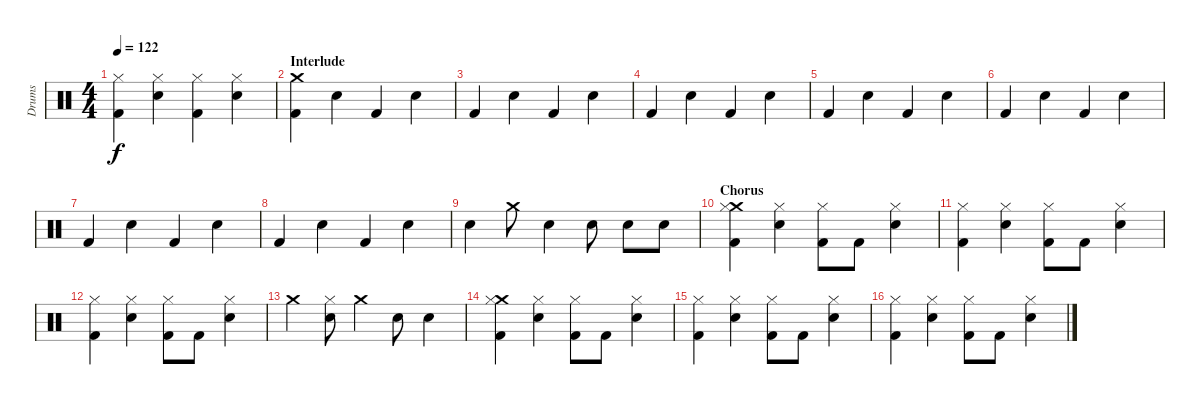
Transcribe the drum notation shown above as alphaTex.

\track ("Drums" "Drums") {instrument percussion}
\staff {score}
\articulation defaults
\ts (4 4)
\tempo 122
\clef neutral
\ks aminor
("Hi-Hat (closed)" "Kick (hit) 2").4{dy f} ("Hi-Hat (closed)" "Snare (hit) 2").4 ("Hi-Hat (closed)" "Kick (hit) 2").4 ("Hi-Hat (closed)" "Snare (hit) 2").4 |
\section ("" "Interlude")
("Crash medium (hit)" "Kick (hit) 2").4 "Snare (hit) 2".4 "Kick (hit) 2".4 "Snare (hit) 2".4 |
"Kick (hit) 2".4 "Snare (hit) 2".4 "Kick (hit) 2".4 "Snare (hit) 2".4 |
"Kick (hit) 2".4 "Snare (hit) 2".4 "Kick (hit) 2".4 "Snare (hit) 2".4 |
"Kick (hit) 2".4 "Snare (hit) 2".4 "Kick (hit) 2".4 "Snare (hit) 2".4 |
"Kick (hit) 2".4 "Snare (hit) 2".4 "Kick (hit) 2".4 "Snare (hit) 2".4 |
"Kick (hit) 2".4 "Snare (hit) 2".4 "Kick (hit) 2".4 "Snare (hit) 2".4 |
"Kick (hit) 2".4 "Snare (hit) 2".4 "Kick (hit) 2".4 "Snare (hit) 2".4 |
"Electric Snare (hit)".4 "Crash medium (hit)".8 "Electric Snare (hit)".4 "Electric Snare (hit)".8 "Electric Snare (hit)".8 "Electric Snare (hit)".8 |
\section ("" "Chorus")
("Crash medium (hit)" "Hi-Hat (closed)" "Kick (hit) 2").4 ("Hi-Hat (closed)" "Snare (hit) 2").4 ("Hi-Hat (closed)" "Kick (hit) 2").8 "Kick (hit) 2".8 ("Hi-Hat (closed)" "Snare (hit) 2").4 |
("Hi-Hat (closed)" "Kick (hit) 2").4 ("Hi-Hat (closed)" "Snare (hit) 2").4 ("Hi-Hat (closed)" "Kick (hit) 2").8 "Kick (hit) 2".8 ("Hi-Hat (closed)" "Snare (hit) 2").4 |
("Hi-Hat (closed)" "Kick (hit) 2").4 ("Hi-Hat (closed)" "Snare (hit) 2").4 ("Hi-Hat (closed)" "Kick (hit) 2").8 "Kick (hit) 2".8 ("Hi-Hat (closed)" "Snare (hit) 2").4 |
"Crash medium (hit)".4 ("Hi-Hat (closed)" "Snare (hit) 2").8 "Crash medium (hit)".4 "Electric Snare (hit)".8 "Electric Snare (hit)".4 |
("Crash medium (hit)" "Hi-Hat (closed)" "Kick (hit) 2").4 ("Hi-Hat (closed)" "Snare (hit) 2").4 ("Hi-Hat (closed)" "Kick (hit) 2").8 "Kick (hit) 2".8 ("Hi-Hat (closed)" "Snare (hit) 2").4 |
("Hi-Hat (closed)" "Kick (hit) 2").4 ("Hi-Hat (closed)" "Snare (hit) 2").4 ("Hi-Hat (closed)" "Kick (hit) 2").8 "Kick (hit) 2".8 ("Hi-Hat (closed)" "Snare (hit) 2").4 |
("Hi-Hat (closed)" "Kick (hit) 2").4 ("Hi-Hat (closed)" "Snare (hit) 2").4 ("Hi-Hat (closed)" "Kick (hit) 2").8 "Kick (hit) 2".8 ("Hi-Hat (closed)" "Snare (hit) 2").4
